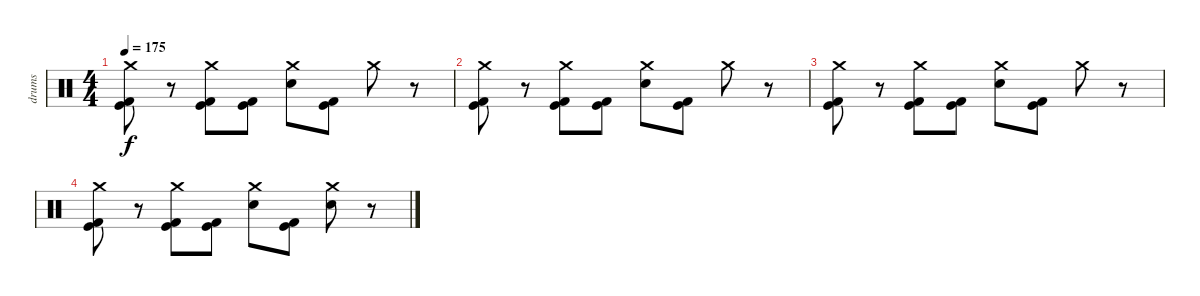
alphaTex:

\track ("drums" "drums") {instrument percussion}
\staff {score}
\articulation defaults
\ts (4 4)
\tempo 175
\clef neutral
\ks c
("Kick (hit)" "Kick (hit) 2" "Crash medium (hit)").8{dy f} r.8 ("Kick (hit)" "Kick (hit) 2" "Crash medium (hit)").8 ("Kick (hit)" "Kick (hit) 2").8 ("Electric Snare (hit)" "Crash medium (hit)").8 ("Kick (hit)" "Kick (hit) 2").8 "Crash medium (hit)".8 r.8 |
("Kick (hit)" "Kick (hit) 2" "Crash medium (hit)").8 r.8 ("Kick (hit)" "Kick (hit) 2" "Crash medium (hit)").8 ("Kick (hit)" "Kick (hit) 2").8 ("Electric Snare (hit)" "Crash medium (hit)").8 ("Kick (hit)" "Kick (hit) 2").8 "Crash medium (hit)".8 r.8 |
("Kick (hit)" "Kick (hit) 2" "Crash medium (hit)").8 r.8 ("Kick (hit)" "Kick (hit) 2" "Crash medium (hit)").8 ("Kick (hit)" "Kick (hit) 2").8 ("Electric Snare (hit)" "Crash medium (hit)").8 ("Kick (hit)" "Kick (hit) 2").8 "Crash medium (hit)".8 r.8 |
("Kick (hit)" "Kick (hit) 2" "Crash medium (hit)").8 r.8 ("Kick (hit)" "Kick (hit) 2" "Crash medium (hit)").8 ("Kick (hit)" "Kick (hit) 2").8 ("Electric Snare (hit)" "Crash medium (hit)").8 ("Kick (hit)" "Kick (hit) 2").8 ("Electric Snare (hit)" "Crash medium (hit)").8 r.8
